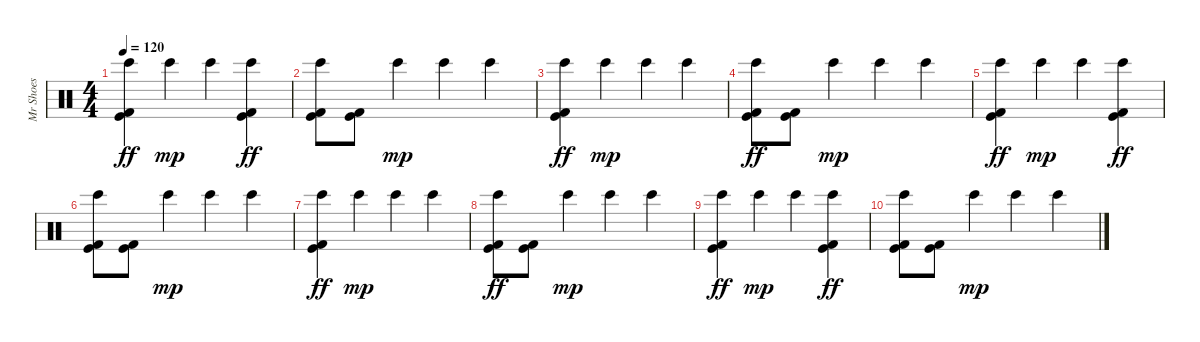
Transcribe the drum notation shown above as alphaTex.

\track ("Mr Shoes" "Mr Shoes") {instrument percussion}
\staff {score}
\articulation defaults
\ts (4 4)
\tempo 120
\clef neutral
\ks c
("Bongo High (hit)" "Kick (hit)" "Kick (hit) 2").4{dy ff} "Bongo High (hit)".4{dy mp} "Bongo High (hit)".4 ("Bongo High (hit)" "Kick (hit)" "Kick (hit) 2").4{dy ff} |
("Bongo High (hit)" "Kick (hit)" "Kick (hit) 2").8 ("Kick (hit)" "Kick (hit) 2").8 "Bongo High (hit)".4{dy mp} "Bongo High (hit)".4 "Bongo High (hit)".4 |
("Bongo High (hit)" "Kick (hit)" "Kick (hit) 2").4{dy ff} "Bongo High (hit)".4{dy mp} "Bongo High (hit)".4 "Bongo High (hit)".4 |
("Bongo High (hit)" "Kick (hit)" "Kick (hit) 2").8{dy ff} ("Kick (hit)" "Kick (hit) 2").8 "Bongo High (hit)".4{dy mp} "Bongo High (hit)".4 "Bongo High (hit)".4 |
("Bongo High (hit)" "Kick (hit)" "Kick (hit) 2").4{dy ff} "Bongo High (hit)".4{dy mp} "Bongo High (hit)".4 ("Bongo High (hit)" "Kick (hit)" "Kick (hit) 2").4{dy ff} |
("Bongo High (hit)" "Kick (hit)" "Kick (hit) 2").8 ("Kick (hit)" "Kick (hit) 2").8 "Bongo High (hit)".4{dy mp} "Bongo High (hit)".4 "Bongo High (hit)".4 |
("Bongo High (hit)" "Kick (hit)" "Kick (hit) 2").4{dy ff} "Bongo High (hit)".4{dy mp} "Bongo High (hit)".4 "Bongo High (hit)".4 |
("Bongo High (hit)" "Kick (hit)" "Kick (hit) 2").8{dy ff} ("Kick (hit)" "Kick (hit) 2").8 "Bongo High (hit)".4{dy mp} "Bongo High (hit)".4 "Bongo High (hit)".4 |
("Bongo High (hit)" "Kick (hit)" "Kick (hit) 2").4{dy ff} "Bongo High (hit)".4{dy mp} "Bongo High (hit)".4 ("Bongo High (hit)" "Kick (hit)" "Kick (hit) 2").4{dy ff} |
("Bongo High (hit)" "Kick (hit)" "Kick (hit) 2").8 ("Kick (hit)" "Kick (hit) 2").8 "Bongo High (hit)".4{dy mp} "Bongo High (hit)".4 "Bongo High (hit)".4
